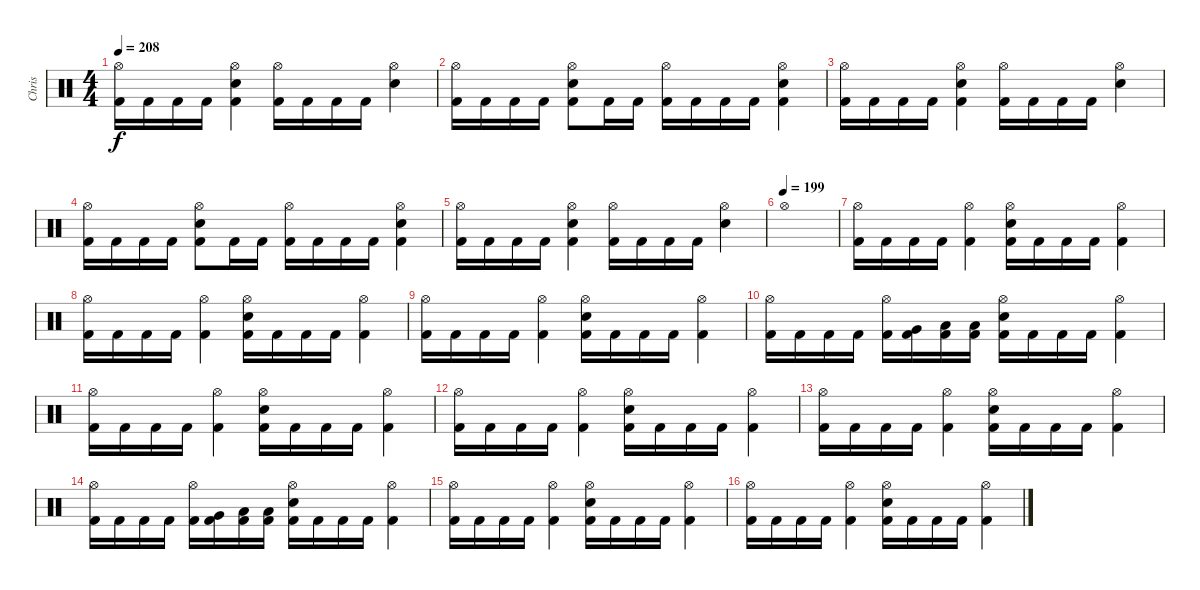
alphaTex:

\track ("Chris" "Chris") {instrument percussion}
\staff {score}
\articulation defaults
\ts (4 4)
\tempo 208
\clef neutral
\ks c
("Hi-Hat (open)" "Kick (hit) 2").16{dy f} "Kick (hit) 2".16 "Kick (hit) 2".16 "Kick (hit) 2".16 ("Hi-Hat (open)" "Kick (hit) 2" "Electric Snare (hit)").4 ("Hi-Hat (open)" "Kick (hit) 2").16 "Kick (hit) 2".16 "Kick (hit) 2".16 "Kick (hit) 2".16 ("Hi-Hat (open)" "Electric Snare (hit)").4 |
("Hi-Hat (open)" "Kick (hit) 2").16 "Kick (hit) 2".16 "Kick (hit) 2".16 "Kick (hit) 2".16 ("Hi-Hat (open)" "Kick (hit) 2" "Electric Snare (hit)").8 "Kick (hit) 2".16 "Kick (hit) 2".16 ("Hi-Hat (open)" "Kick (hit) 2").16 "Kick (hit) 2".16 "Kick (hit) 2".16 "Kick (hit) 2".16 ("Hi-Hat (open)" "Kick (hit) 2" "Electric Snare (hit)").4 |
("Hi-Hat (open)" "Kick (hit) 2").16 "Kick (hit) 2".16 "Kick (hit) 2".16 "Kick (hit) 2".16 ("Hi-Hat (open)" "Kick (hit) 2" "Electric Snare (hit)").4 ("Hi-Hat (open)" "Kick (hit) 2").16 "Kick (hit) 2".16 "Kick (hit) 2".16 "Kick (hit) 2".16 ("Hi-Hat (open)" "Electric Snare (hit)").4 |
("Hi-Hat (open)" "Kick (hit) 2").16 "Kick (hit) 2".16 "Kick (hit) 2".16 "Kick (hit) 2".16 ("Hi-Hat (open)" "Kick (hit) 2" "Electric Snare (hit)").8 "Kick (hit) 2".16 "Kick (hit) 2".16 ("Hi-Hat (open)" "Kick (hit) 2").16 "Kick (hit) 2".16 "Kick (hit) 2".16 "Kick (hit) 2".16 ("Hi-Hat (open)" "Kick (hit) 2" "Electric Snare (hit)").4 |
("Hi-Hat (open)" "Kick (hit) 2").16 "Kick (hit) 2".16 "Kick (hit) 2".16 "Kick (hit) 2".16 ("Hi-Hat (open)" "Kick (hit) 2" "Electric Snare (hit)").4 ("Hi-Hat (open)" "Kick (hit) 2").16 "Kick (hit) 2".16 "Kick (hit) 2".16 "Kick (hit) 2".16 ("Hi-Hat (open)" "Electric Snare (hit)").4 |
\tempo (199)
"Hi-Hat (open)".1 |
("Hi-Hat (open)" "Kick (hit) 2").16 "Kick (hit) 2".16 "Kick (hit) 2".16 "Kick (hit) 2".16 ("Hi-Hat (open)" "Kick (hit) 2").4 ("Hi-Hat (open)" "Kick (hit) 2" "Electric Snare (hit)").16 "Kick (hit) 2".16 "Kick (hit) 2".16 "Kick (hit) 2".16 ("Hi-Hat (open)" "Kick (hit) 2").4 |
("Hi-Hat (open)" "Kick (hit) 2").16 "Kick (hit) 2".16 "Kick (hit) 2".16 "Kick (hit) 2".16 ("Hi-Hat (open)" "Kick (hit) 2").4 ("Hi-Hat (open)" "Kick (hit) 2" "Electric Snare (hit)").16 "Kick (hit) 2".16 "Kick (hit) 2".16 "Kick (hit) 2".16 ("Hi-Hat (open)" "Kick (hit) 2").4 |
("Hi-Hat (open)" "Kick (hit) 2").16 "Kick (hit) 2".16 "Kick (hit) 2".16 "Kick (hit) 2".16 ("Hi-Hat (open)" "Kick (hit) 2").4 ("Hi-Hat (open)" "Kick (hit) 2" "Electric Snare (hit)").16 "Kick (hit) 2".16 "Kick (hit) 2".16 "Kick (hit) 2".16 ("Hi-Hat (open)" "Kick (hit) 2").4 |
("Hi-Hat (open)" "Kick (hit) 2").16 "Kick (hit) 2".16 "Kick (hit) 2".16 "Kick (hit) 2".16 ("Hi-Hat (open)" "Kick (hit) 2").16 ("Kick (hit) 2" "Very Low Tom (hit)").16 ("Kick (hit) 2" "Low Floor Tom (hit)").16 ("Kick (hit) 2" "Low Floor Tom (hit)").16 ("Hi-Hat (open)" "Kick (hit) 2" "Electric Snare (hit)").16 "Kick (hit) 2".16 "Kick (hit) 2".16 "Kick (hit) 2".16 ("Hi-Hat (open)" "Kick (hit) 2").4 |
("Hi-Hat (open)" "Kick (hit) 2").16 "Kick (hit) 2".16 "Kick (hit) 2".16 "Kick (hit) 2".16 ("Hi-Hat (open)" "Kick (hit) 2").4 ("Hi-Hat (open)" "Kick (hit) 2" "Electric Snare (hit)").16 "Kick (hit) 2".16 "Kick (hit) 2".16 "Kick (hit) 2".16 ("Hi-Hat (open)" "Kick (hit) 2").4 |
("Hi-Hat (open)" "Kick (hit) 2").16 "Kick (hit) 2".16 "Kick (hit) 2".16 "Kick (hit) 2".16 ("Hi-Hat (open)" "Kick (hit) 2").4 ("Hi-Hat (open)" "Kick (hit) 2" "Electric Snare (hit)").16 "Kick (hit) 2".16 "Kick (hit) 2".16 "Kick (hit) 2".16 ("Hi-Hat (open)" "Kick (hit) 2").4 |
("Hi-Hat (open)" "Kick (hit) 2").16 "Kick (hit) 2".16 "Kick (hit) 2".16 "Kick (hit) 2".16 ("Hi-Hat (open)" "Kick (hit) 2").4 ("Hi-Hat (open)" "Kick (hit) 2" "Electric Snare (hit)").16 "Kick (hit) 2".16 "Kick (hit) 2".16 "Kick (hit) 2".16 ("Hi-Hat (open)" "Kick (hit) 2").4 |
("Hi-Hat (open)" "Kick (hit) 2").16 "Kick (hit) 2".16 "Kick (hit) 2".16 "Kick (hit) 2".16 ("Hi-Hat (open)" "Kick (hit) 2").16 ("Kick (hit) 2" "Very Low Tom (hit)").16 ("Kick (hit) 2" "Low Floor Tom (hit)").16 ("Kick (hit) 2" "Low Floor Tom (hit)").16 ("Hi-Hat (open)" "Kick (hit) 2" "Electric Snare (hit)").16 "Kick (hit) 2".16 "Kick (hit) 2".16 "Kick (hit) 2".16 ("Hi-Hat (open)" "Kick (hit) 2").4 |
("Hi-Hat (open)" "Kick (hit) 2").16 "Kick (hit) 2".16 "Kick (hit) 2".16 "Kick (hit) 2".16 ("Hi-Hat (open)" "Kick (hit) 2").4 ("Hi-Hat (open)" "Kick (hit) 2" "Electric Snare (hit)").16 "Kick (hit) 2".16 "Kick (hit) 2".16 "Kick (hit) 2".16 ("Hi-Hat (open)" "Kick (hit) 2").4 |
("Hi-Hat (open)" "Kick (hit) 2").16 "Kick (hit) 2".16 "Kick (hit) 2".16 "Kick (hit) 2".16 ("Hi-Hat (open)" "Kick (hit) 2").4 ("Hi-Hat (open)" "Kick (hit) 2" "Electric Snare (hit)").16 "Kick (hit) 2".16 "Kick (hit) 2".16 "Kick (hit) 2".16 ("Hi-Hat (open)" "Kick (hit) 2").4
